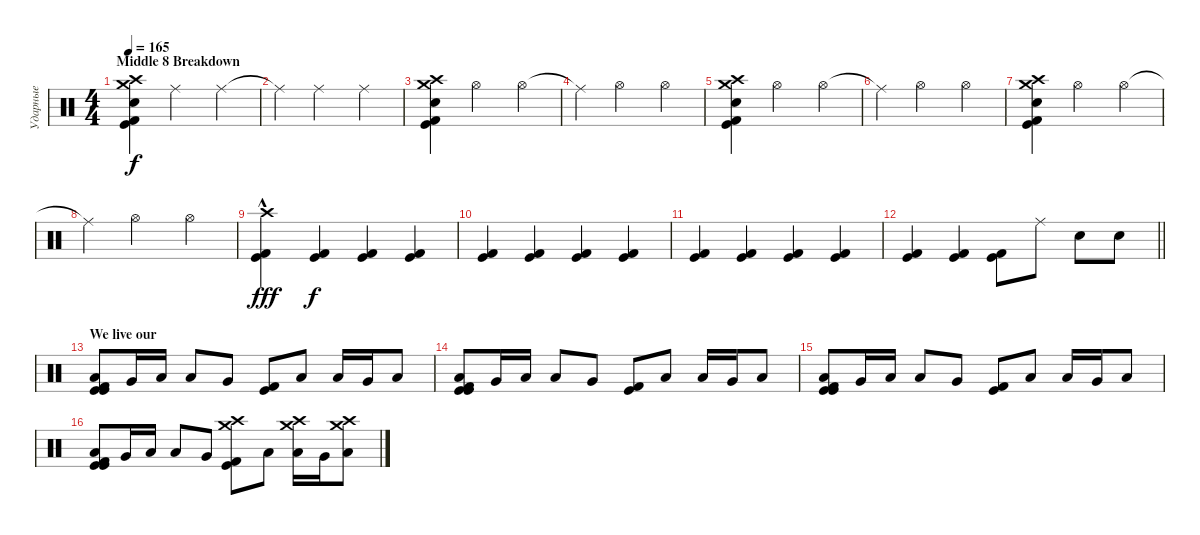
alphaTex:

\track ("Ударные" "Ударные") {instrument percussion}
\staff {score}
\articulation defaults
\ts (4 4)
\section ("" "Middle 8 Breakdown")
\tempo 165
\clef neutral
\ks c
("Crash high (hit)" "Crash medium (hit)" "Electric Snare (hit)" "Kick (hit)" "Kick (hit) 2").4{dy f} "Ride (middle)".2 "Ride (middle)".4 |
"Ride (middle)"{t}.4 "Ride (middle)".2 "Ride (middle)".4 |
("Crash high (hit)" "Crash medium (hit)" "Electric Snare (hit)" "Kick (hit)" "Kick (hit) 2").4 "Hi-Hat (open)".2 "Hi-Hat (open)".4 |
"Ride (middle)"{t}.4 "Hi-Hat (open)".2 "Hi-Hat (open)".4 |
("Crash high (hit)" "Crash medium (hit)" "Electric Snare (hit)" "Kick (hit)" "Kick (hit) 2").4 "Hi-Hat (open)".2 "Hi-Hat (open)".4 |
"Ride (middle)"{t}.4 "Hi-Hat (open)".2 "Hi-Hat (open)".4 |
("Crash high (hit)" "Crash medium (hit)" "Electric Snare (hit)" "Kick (hit)" "Kick (hit) 2").4 "Hi-Hat (open)".2 "Hi-Hat (open)".4 |
"Ride (middle)"{t}.4 "Hi-Hat (open)".2 "Hi-Hat (open)".4 |
("Crash high (hit)"{hac} "Kick (hit)" "Kick (hit) 2").4{dy fff} ("Kick (hit)" "Kick (hit) 2").4{dy f} ("Kick (hit)" "Kick (hit) 2").4 ("Kick (hit)" "Kick (hit) 2").4 |
("Kick (hit)" "Kick (hit) 2").4 ("Kick (hit)" "Kick (hit) 2").4 ("Kick (hit)" "Kick (hit) 2").4 ("Kick (hit)" "Kick (hit) 2").4 |
("Kick (hit)" "Kick (hit) 2").4 ("Kick (hit)" "Kick (hit) 2").4 ("Kick (hit)" "Kick (hit) 2").4 ("Kick (hit)" "Kick (hit) 2").4 |
\barLineRight lightlight
("Kick (hit)" "Kick (hit) 2").4 ("Kick (hit)" "Kick (hit) 2").4 ("Kick (hit)" "Kick (hit) 2").8 "Ride (middle)".8 "Electric Snare (hit)".8 "Electric Snare (hit)".8 |
\section ("" "We live our")
("Kick (hit)" "Low Floor Tom (hit)" "Kick (hit)" "Kick (hit) 2").8 "Very Low Tom (hit)".16 "Low Floor Tom (hit)".16 "Low Floor Tom (hit)".8 "Very Low Tom (hit)".8 ("Kick (hit)" "Kick (hit) 2").8 "Low Floor Tom (hit)".8 "Low Floor Tom (hit)".16 "Very Low Tom (hit)".16 "Low Floor Tom (hit)".8 |
("Kick (hit)" "Low Floor Tom (hit)" "Kick (hit)" "Kick (hit) 2").8 "Very Low Tom (hit)".16 "Low Floor Tom (hit)".16 "Low Floor Tom (hit)".8 "Very Low Tom (hit)".8 ("Kick (hit)" "Kick (hit) 2").8 "Low Floor Tom (hit)".8 "Low Floor Tom (hit)".16 "Very Low Tom (hit)".16 "Low Floor Tom (hit)".8 |
("Kick (hit)" "Low Floor Tom (hit)" "Kick (hit)" "Kick (hit) 2").8 "Very Low Tom (hit)".16 "Low Floor Tom (hit)".16 "Low Floor Tom (hit)".8 "Very Low Tom (hit)".8 ("Kick (hit)" "Kick (hit) 2").8 "Low Floor Tom (hit)".8 "Low Floor Tom (hit)".16 "Very Low Tom (hit)".16 "Low Floor Tom (hit)".8 |
("Kick (hit)" "Low Floor Tom (hit)" "Kick (hit)" "Kick (hit) 2").8 "Very Low Tom (hit)".16 "Low Floor Tom (hit)".16 "Low Floor Tom (hit)".8 "Very Low Tom (hit)".8 ("Crash medium (hit)" "Crash high (hit)" "Kick (hit)" "Kick (hit) 2").8 "Low Floor Tom (hit)".8 ("Low Floor Tom (hit)" "Crash medium (hit)" "Crash high (hit)").16 "Very Low Tom (hit)".16 ("Low Floor Tom (hit)" "Crash medium (hit)" "Crash high (hit)").8
